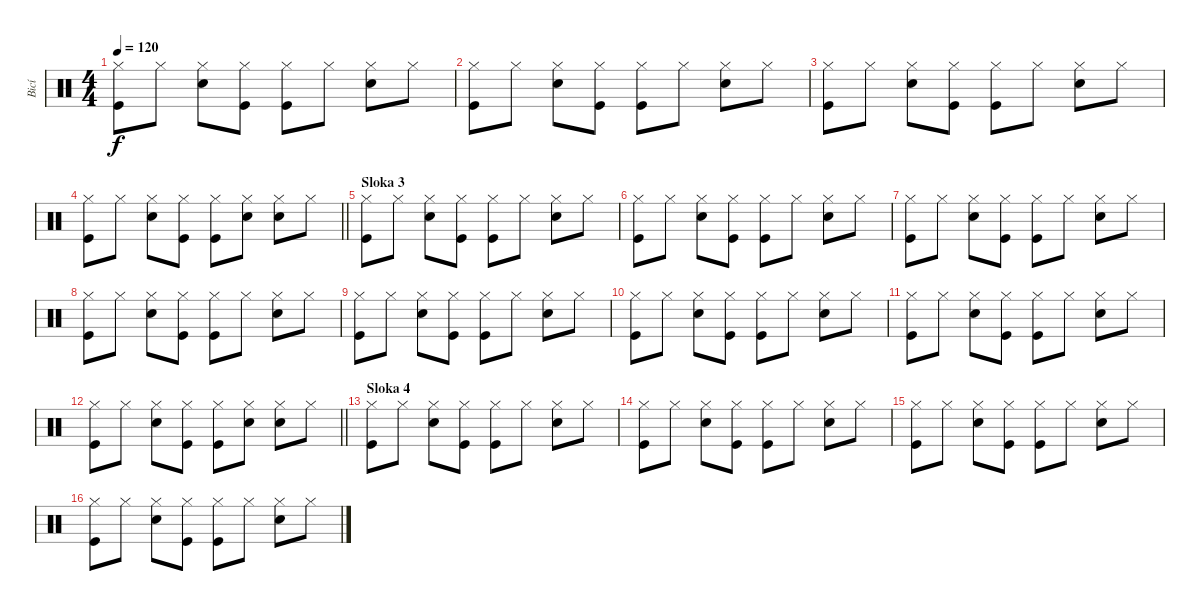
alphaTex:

\track ("Bicí" "Bicí") {instrument percussion}
\staff {score}
\articulation defaults
\ts (4 4)
\tempo 120
\clef neutral
\ks c
("Hi-Hat (closed)" "Kick (hit)").8{dy f} "Hi-Hat (closed)".8 ("Hi-Hat (closed)" "Snare (hit) 2").8 ("Hi-Hat (closed)" "Kick (hit)").8 ("Hi-Hat (closed)" "Kick (hit)").8 "Hi-Hat (closed)".8 ("Hi-Hat (closed)" "Snare (hit) 2").8 "Hi-Hat (closed)".8 |
("Hi-Hat (closed)" "Kick (hit)").8 "Hi-Hat (closed)".8 ("Hi-Hat (closed)" "Snare (hit) 2").8 ("Hi-Hat (closed)" "Kick (hit)").8 ("Hi-Hat (closed)" "Kick (hit)").8 "Hi-Hat (closed)".8 ("Hi-Hat (closed)" "Snare (hit) 2").8 "Hi-Hat (closed)".8 |
("Hi-Hat (closed)" "Kick (hit)").8 "Hi-Hat (closed)".8 ("Hi-Hat (closed)" "Snare (hit) 2").8 ("Hi-Hat (closed)" "Kick (hit)").8 ("Hi-Hat (closed)" "Kick (hit)").8 "Hi-Hat (closed)".8 ("Hi-Hat (closed)" "Snare (hit) 2").8 "Hi-Hat (closed)".8 |
\barLineRight lightlight
("Hi-Hat (closed)" "Kick (hit)").8 "Hi-Hat (closed)".8 ("Hi-Hat (closed)" "Snare (hit) 2").8 ("Hi-Hat (closed)" "Kick (hit)").8 ("Hi-Hat (closed)" "Kick (hit)").8 ("Hi-Hat (closed)" "Snare (hit) 2").8 ("Hi-Hat (closed)" "Snare (hit) 2").8 "Hi-Hat (closed)".8 |
\section ("" "Sloka 3")
("Hi-Hat (closed)" "Kick (hit)").8 "Hi-Hat (closed)".8 ("Hi-Hat (closed)" "Snare (hit) 2").8 ("Hi-Hat (closed)" "Kick (hit)").8 ("Hi-Hat (closed)" "Kick (hit)").8 "Hi-Hat (closed)".8 ("Hi-Hat (closed)" "Snare (hit) 2").8 "Hi-Hat (closed)".8 |
("Hi-Hat (closed)" "Kick (hit)").8 "Hi-Hat (closed)".8 ("Hi-Hat (closed)" "Snare (hit) 2").8 ("Hi-Hat (closed)" "Kick (hit)").8 ("Hi-Hat (closed)" "Kick (hit)").8 "Hi-Hat (closed)".8 ("Hi-Hat (closed)" "Snare (hit) 2").8 "Hi-Hat (closed)".8 |
("Hi-Hat (closed)" "Kick (hit)").8 "Hi-Hat (closed)".8 ("Hi-Hat (closed)" "Snare (hit) 2").8 ("Hi-Hat (closed)" "Kick (hit)").8 ("Hi-Hat (closed)" "Kick (hit)").8 "Hi-Hat (closed)".8 ("Hi-Hat (closed)" "Snare (hit) 2").8 "Hi-Hat (closed)".8 |
("Hi-Hat (closed)" "Kick (hit)").8 "Hi-Hat (closed)".8 ("Hi-Hat (closed)" "Snare (hit) 2").8 ("Hi-Hat (closed)" "Kick (hit)").8 ("Hi-Hat (closed)" "Kick (hit)").8 "Hi-Hat (closed)".8 ("Hi-Hat (closed)" "Snare (hit) 2").8 "Hi-Hat (closed)".8 |
("Hi-Hat (closed)" "Kick (hit)").8 "Hi-Hat (closed)".8 ("Hi-Hat (closed)" "Snare (hit) 2").8 ("Hi-Hat (closed)" "Kick (hit)").8 ("Hi-Hat (closed)" "Kick (hit)").8 "Hi-Hat (closed)".8 ("Hi-Hat (closed)" "Snare (hit) 2").8 "Hi-Hat (closed)".8 |
("Hi-Hat (closed)" "Kick (hit)").8 "Hi-Hat (closed)".8 ("Hi-Hat (closed)" "Snare (hit) 2").8 ("Hi-Hat (closed)" "Kick (hit)").8 ("Hi-Hat (closed)" "Kick (hit)").8 "Hi-Hat (closed)".8 ("Hi-Hat (closed)" "Snare (hit) 2").8 "Hi-Hat (closed)".8 |
("Hi-Hat (closed)" "Kick (hit)").8 "Hi-Hat (closed)".8 ("Hi-Hat (closed)" "Snare (hit) 2").8 ("Hi-Hat (closed)" "Kick (hit)").8 ("Hi-Hat (closed)" "Kick (hit)").8 "Hi-Hat (closed)".8 ("Hi-Hat (closed)" "Snare (hit) 2").8 "Hi-Hat (closed)".8 |
\barLineRight lightlight
("Hi-Hat (closed)" "Kick (hit)").8 "Hi-Hat (closed)".8 ("Hi-Hat (closed)" "Snare (hit) 2").8 ("Hi-Hat (closed)" "Kick (hit)").8 ("Hi-Hat (closed)" "Kick (hit)").8 ("Hi-Hat (closed)" "Snare (hit) 2").8 ("Hi-Hat (closed)" "Snare (hit) 2").8 "Hi-Hat (closed)".8 |
\section ("" "Sloka 4")
("Hi-Hat (closed)" "Kick (hit)").8 "Hi-Hat (closed)".8 ("Hi-Hat (closed)" "Snare (hit) 2").8 ("Hi-Hat (closed)" "Kick (hit)").8 ("Hi-Hat (closed)" "Kick (hit)").8 "Hi-Hat (closed)".8 ("Hi-Hat (closed)" "Snare (hit) 2").8 "Hi-Hat (closed)".8 |
("Hi-Hat (closed)" "Kick (hit)").8 "Hi-Hat (closed)".8 ("Hi-Hat (closed)" "Snare (hit) 2").8 ("Hi-Hat (closed)" "Kick (hit)").8 ("Hi-Hat (closed)" "Kick (hit)").8 "Hi-Hat (closed)".8 ("Hi-Hat (closed)" "Snare (hit) 2").8 "Hi-Hat (closed)".8 |
("Hi-Hat (closed)" "Kick (hit)").8 "Hi-Hat (closed)".8 ("Hi-Hat (closed)" "Snare (hit) 2").8 ("Hi-Hat (closed)" "Kick (hit)").8 ("Hi-Hat (closed)" "Kick (hit)").8 "Hi-Hat (closed)".8 ("Hi-Hat (closed)" "Snare (hit) 2").8 "Hi-Hat (closed)".8 |
("Hi-Hat (closed)" "Kick (hit)").8 "Hi-Hat (closed)".8 ("Hi-Hat (closed)" "Snare (hit) 2").8 ("Hi-Hat (closed)" "Kick (hit)").8 ("Hi-Hat (closed)" "Kick (hit)").8 "Hi-Hat (closed)".8 ("Hi-Hat (closed)" "Snare (hit) 2").8 "Hi-Hat (closed)".8
